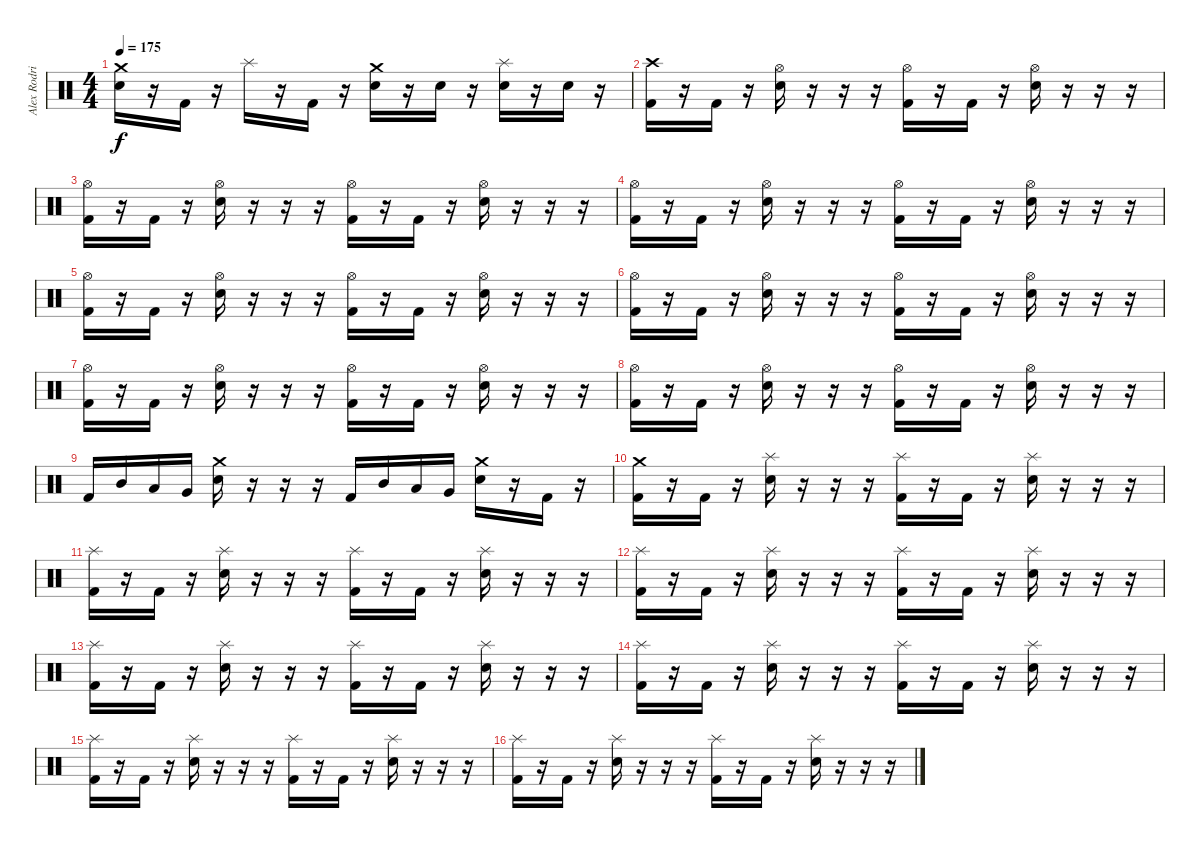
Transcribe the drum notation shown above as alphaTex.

\track ("Alex Rodriguez" "Alex Rodri") {instrument percussion}
\staff {score}
\articulation defaults
\ts (4 4)
\tempo 175
\clef neutral
\ks c
("Crash medium (hit)" "Electric Snare (hit)").16{dy f} r.16 "Kick (hit) 2".16 r.16 "Splash (hit)".16 r.16 "Kick (hit) 2".16 r.16 ("Crash medium (hit)" "Electric Snare (hit)").16 r.16 "Electric Snare (hit)".16 r.16 ("Splash (hit)" "Electric Snare (hit)").16 r.16 "Electric Snare (hit)".16 r.16 |
("Crash high (hit)" "Kick (hit) 2").16 r.16 "Kick (hit) 2".16 r.16 ("Hi-Hat (open)" "Electric Snare (hit)").16 r.16 r.16 r.16 ("Hi-Hat (open)" "Kick (hit) 2").16 r.16 "Kick (hit) 2".16 r.16 ("Hi-Hat (open)" "Electric Snare (hit)").16 r.16 r.16 r.16 |
("Hi-Hat (open)" "Kick (hit) 2").16 r.16 "Kick (hit) 2".16 r.16 ("Hi-Hat (open)" "Electric Snare (hit)").16 r.16 r.16 r.16 ("Hi-Hat (open)" "Kick (hit) 2").16 r.16 "Kick (hit) 2".16 r.16 ("Hi-Hat (open)" "Electric Snare (hit)").16 r.16 r.16 r.16 |
("Hi-Hat (open)" "Kick (hit) 2").16 r.16 "Kick (hit) 2".16 r.16 ("Hi-Hat (open)" "Electric Snare (hit)").16 r.16 r.16 r.16 ("Hi-Hat (open)" "Kick (hit) 2").16 r.16 "Kick (hit) 2".16 r.16 ("Hi-Hat (open)" "Electric Snare (hit)").16 r.16 r.16 r.16 |
("Hi-Hat (open)" "Kick (hit) 2").16 r.16 "Kick (hit) 2".16 r.16 ("Hi-Hat (open)" "Electric Snare (hit)").16 r.16 r.16 r.16 ("Hi-Hat (open)" "Kick (hit) 2").16 r.16 "Kick (hit) 2".16 r.16 ("Hi-Hat (open)" "Electric Snare (hit)").16 r.16 r.16 r.16 |
("Hi-Hat (open)" "Kick (hit) 2").16 r.16 "Kick (hit) 2".16 r.16 ("Hi-Hat (open)" "Electric Snare (hit)").16 r.16 r.16 r.16 ("Hi-Hat (open)" "Kick (hit) 2").16 r.16 "Kick (hit) 2".16 r.16 ("Hi-Hat (open)" "Electric Snare (hit)").16 r.16 r.16 r.16 |
("Hi-Hat (open)" "Kick (hit) 2").16 r.16 "Kick (hit) 2".16 r.16 ("Hi-Hat (open)" "Electric Snare (hit)").16 r.16 r.16 r.16 ("Hi-Hat (open)" "Kick (hit) 2").16 r.16 "Kick (hit) 2".16 r.16 ("Hi-Hat (open)" "Electric Snare (hit)").16 r.16 r.16 r.16 |
("Hi-Hat (open)" "Kick (hit) 2").16 r.16 "Kick (hit) 2".16 r.16 ("Hi-Hat (open)" "Electric Snare (hit)").16 r.16 r.16 r.16 ("Hi-Hat (open)" "Kick (hit) 2").16 r.16 "Kick (hit) 2".16 r.16 ("Hi-Hat (open)" "Electric Snare (hit)").16 r.16 r.16 r.16 |
"Kick (hit) 2".16 "Mid Tom (hit)".16 "Low Tom (hit)".16 "Very Low Tom (hit)".16 ("Crash medium (hit)" "Electric Snare (hit)").16 r.16 r.16 r.16 "Kick (hit) 2".16 "Mid Tom (hit)".16 "Low Tom (hit)".16 "Very Low Tom (hit)".16 ("Crash medium (hit)" "Electric Snare (hit)").16 r.16 "Kick (hit) 2".16 r.16 |
("Crash medium (hit)" "Kick (hit) 2").16 r.16 "Kick (hit) 2".16 r.16 ("Splash (hit)" "Electric Snare (hit)").16 r.16 r.16 r.16 ("Splash (hit)" "Kick (hit) 2").16 r.16 "Kick (hit) 2".16 r.16 ("Splash (hit)" "Electric Snare (hit)").16 r.16 r.16 r.16 |
("Splash (hit)" "Kick (hit) 2").16 r.16 "Kick (hit) 2".16 r.16 ("Splash (hit)" "Electric Snare (hit)").16 r.16 r.16 r.16 ("Splash (hit)" "Kick (hit) 2").16 r.16 "Kick (hit) 2".16 r.16 ("Splash (hit)" "Electric Snare (hit)").16 r.16 r.16 r.16 |
("Splash (hit)" "Kick (hit) 2").16 r.16 "Kick (hit) 2".16 r.16 ("Splash (hit)" "Electric Snare (hit)").16 r.16 r.16 r.16 ("Splash (hit)" "Kick (hit) 2").16 r.16 "Kick (hit) 2".16 r.16 ("Splash (hit)" "Electric Snare (hit)").16 r.16 r.16 r.16 |
("Splash (hit)" "Kick (hit) 2").16 r.16 "Kick (hit) 2".16 r.16 ("Splash (hit)" "Electric Snare (hit)").16 r.16 r.16 r.16 ("Splash (hit)" "Kick (hit) 2").16 r.16 "Kick (hit) 2".16 r.16 ("Splash (hit)" "Electric Snare (hit)").16 r.16 r.16 r.16 |
("Splash (hit)" "Kick (hit) 2").16 r.16 "Kick (hit) 2".16 r.16 ("Splash (hit)" "Electric Snare (hit)").16 r.16 r.16 r.16 ("Splash (hit)" "Kick (hit) 2").16 r.16 "Kick (hit) 2".16 r.16 ("Splash (hit)" "Electric Snare (hit)").16 r.16 r.16 r.16 |
("Splash (hit)" "Kick (hit) 2").16 r.16 "Kick (hit) 2".16 r.16 ("Splash (hit)" "Electric Snare (hit)").16 r.16 r.16 r.16 ("Splash (hit)" "Kick (hit) 2").16 r.16 "Kick (hit) 2".16 r.16 ("Splash (hit)" "Electric Snare (hit)").16 r.16 r.16 r.16 |
("Splash (hit)" "Kick (hit) 2").16 r.16 "Kick (hit) 2".16 r.16 ("Splash (hit)" "Electric Snare (hit)").16 r.16 r.16 r.16 ("Splash (hit)" "Kick (hit) 2").16 r.16 "Kick (hit) 2".16 r.16 ("Splash (hit)" "Electric Snare (hit)").16 r.16 r.16 r.16
